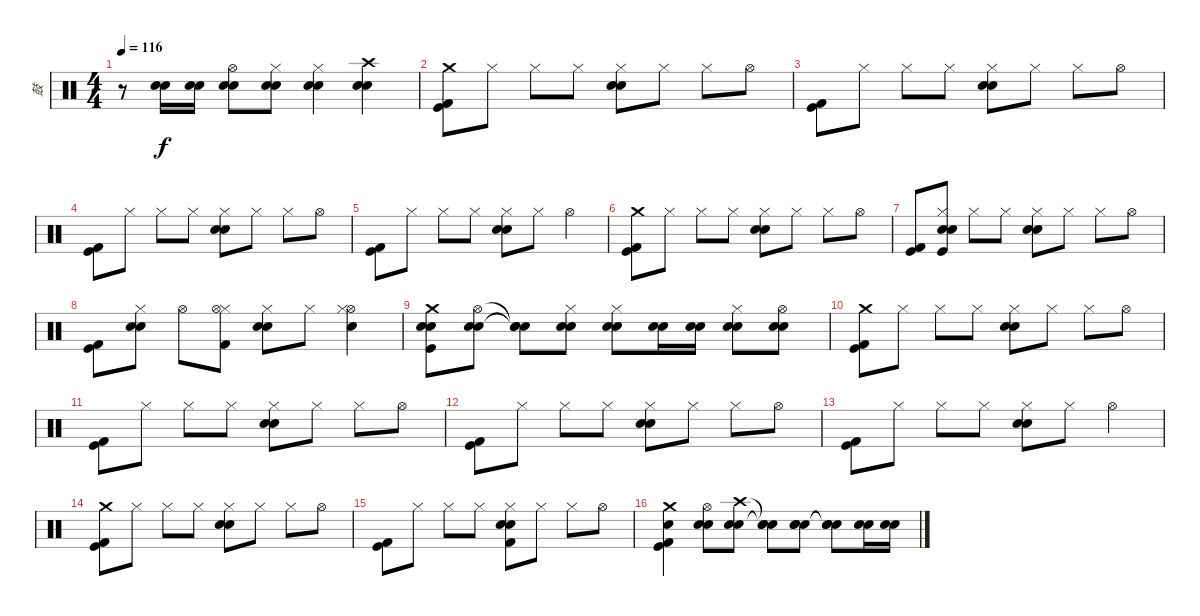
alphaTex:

\track ("鼓" "鼓") {instrument percussion}
\staff {score}
\articulation defaults
\ts (4 4)
\tempo 116
\clef neutral
\ks c
r.8{dy f} ("Electric Snare (hit)" "Snare (hit) 2").16 ("Electric Snare (hit)" "Snare (hit) 2").16 ("Hi-Hat (open)" "Electric Snare (hit)" "Snare (hit) 2").8 ("Electric Snare (hit)" "Snare (hit) 2" "Hi-Hat (closed)").8 ("Electric Snare (hit)" "Snare (hit) 2" "Hi-Hat (closed)").4 ("Electric Snare (hit)" "Snare (hit) 2" "Crash high (hit)").4 |
("Kick (hit) 2" "Kick (hit)" "Crash medium (hit)").8 "Hi-Hat (closed)".8 "Hi-Hat (closed)".8 "Hi-Hat (closed)".8 ("Electric Snare (hit)" "Snare (hit) 2" "Hi-Hat (closed)").8 "Hi-Hat (closed)".8 "Hi-Hat (closed)".8 "Hi-Hat (open)".8 |
("Kick (hit) 2" "Kick (hit)").8 "Hi-Hat (closed)".8 "Hi-Hat (closed)".8 "Hi-Hat (closed)".8 ("Electric Snare (hit)" "Snare (hit) 2" "Hi-Hat (closed)").8 "Hi-Hat (closed)".8 "Hi-Hat (closed)".8 "Hi-Hat (open)".8 |
("Kick (hit) 2" "Kick (hit)").8 "Hi-Hat (closed)".8 "Hi-Hat (closed)".8 "Hi-Hat (closed)".8 ("Electric Snare (hit)" "Snare (hit) 2" "Hi-Hat (closed)").8 "Hi-Hat (closed)".8 "Hi-Hat (closed)".8 "Hi-Hat (open)".8 |
("Kick (hit) 2" "Kick (hit)").8 "Hi-Hat (closed)".8 "Hi-Hat (closed)".8 "Hi-Hat (closed)".8 ("Electric Snare (hit)" "Snare (hit) 2" "Hi-Hat (closed)").8 "Hi-Hat (closed)".8 "Hi-Hat (open)".4 |
("Kick (hit) 2" "Kick (hit)" "Crash medium (hit)").8 "Hi-Hat (closed)".8 "Hi-Hat (closed)".8 "Hi-Hat (closed)".8 ("Electric Snare (hit)" "Snare (hit) 2" "Hi-Hat (closed)").8 "Hi-Hat (closed)".8 "Hi-Hat (closed)".8 "Hi-Hat (open)".8 |
("Kick (hit) 2" "Kick (hit)").8 ("Electric Snare (hit)" "Hi-Hat (closed)" "Snare (hit) 2" "Kick (hit)").8 "Hi-Hat (closed)".8 "Hi-Hat (closed)".8 ("Electric Snare (hit)" "Snare (hit) 2" "Hi-Hat (closed)").8 "Hi-Hat (closed)".8 "Hi-Hat (closed)".8 "Hi-Hat (open)".8 |
("Kick (hit) 2" "Kick (hit)").8 ("Electric Snare (hit)" "Hi-Hat (closed)" "Snare (hit) 2").8 "Hi-Hat (open)".8 ("Kick (hit) 2" "Hi-Hat (closed)" "Hi-Hat (open)").8 ("Electric Snare (hit)" "Snare (hit) 2" "Hi-Hat (closed)").8 "Hi-Hat (closed)".8 ("Electric Snare (hit)" "Hi-Hat (open)" "Hi-Hat (closed)").4 |
("Crash medium (hit)" "Kick (hit)" "Electric Snare (hit)" "Snare (hit) 2").8 ("Hi-Hat (open)" "Electric Snare (hit)" "Snare (hit) 2").8 ("Snare (hit)"{t} "Snare (hit)"{t} "Snare (hit)"{t}).8 ("Electric Snare (hit)" "Snare (hit) 2" "Hi-Hat (closed)").8 ("Electric Snare (hit)" "Snare (hit) 2" "Hi-Hat (closed)").8 ("Snare (hit) 2" "Electric Snare (hit)").16 ("Snare (hit) 2" "Electric Snare (hit)").16 ("Electric Snare (hit)" "Snare (hit) 2" "Hi-Hat (closed)").8 ("Electric Snare (hit)" "Snare (hit) 2" "Hi-Hat (open)").8 |
("Kick (hit) 2" "Kick (hit)" "Crash medium (hit)").8 "Hi-Hat (closed)".8 "Hi-Hat (closed)".8 "Hi-Hat (closed)".8 ("Electric Snare (hit)" "Snare (hit) 2" "Hi-Hat (closed)").8 "Hi-Hat (closed)".8 "Hi-Hat (closed)".8 "Hi-Hat (open)".8 |
("Kick (hit) 2" "Kick (hit)").8 "Hi-Hat (closed)".8 "Hi-Hat (closed)".8 "Hi-Hat (closed)".8 ("Electric Snare (hit)" "Snare (hit) 2" "Hi-Hat (closed)").8 "Hi-Hat (closed)".8 "Hi-Hat (closed)".8 "Hi-Hat (open)".8 |
("Kick (hit) 2" "Kick (hit)").8 "Hi-Hat (closed)".8 "Hi-Hat (closed)".8 "Hi-Hat (closed)".8 ("Electric Snare (hit)" "Snare (hit) 2" "Hi-Hat (closed)").8 "Hi-Hat (closed)".8 "Hi-Hat (closed)".8 "Hi-Hat (open)".8 |
("Kick (hit) 2" "Kick (hit)").8 "Hi-Hat (closed)".8 "Hi-Hat (closed)".8 "Hi-Hat (closed)".8 ("Electric Snare (hit)" "Snare (hit) 2" "Hi-Hat (closed)").8 "Hi-Hat (closed)".8 "Hi-Hat (open)".4 |
("Kick (hit) 2" "Kick (hit)" "Crash medium (hit)").8 "Hi-Hat (closed)".8 "Hi-Hat (closed)".8 "Hi-Hat (closed)".8 ("Electric Snare (hit)" "Snare (hit) 2" "Hi-Hat (closed)").8 "Hi-Hat (closed)".8 "Hi-Hat (closed)".8 "Hi-Hat (open)".8 |
("Kick (hit) 2" "Kick (hit)").8 "Hi-Hat (closed)".8 "Hi-Hat (closed)".8 "Hi-Hat (closed)".8 ("Electric Snare (hit)" "Snare (hit) 2" "Hi-Hat (closed)" "Kick (hit) 2").8 "Hi-Hat (closed)".8 "Hi-Hat (closed)".8 "Hi-Hat (open)".8 |
("Kick (hit)" "Kick (hit) 2" "Electric Snare (hit)" "Crash medium (hit)").4 ("Hi-Hat (open)" "Electric Snare (hit)" "Snare (hit) 2").8 ("Electric Snare (hit)" "Snare (hit) 2" "Crash high (hit)").8 ("Snare (hit)"{t} "Snare (hit)"{t} "Snare (hit)"{t}).8 ("Snare (hit) 2" "Electric Snare (hit)" "Snare (hit) 2").8 ("Snare (hit)"{t} "Snare (hit)"{t} "Snare (hit)"{t}).8 ("Snare (hit) 2" "Electric Snare (hit)").16 ("Snare (hit) 2" "Electric Snare (hit)").16
